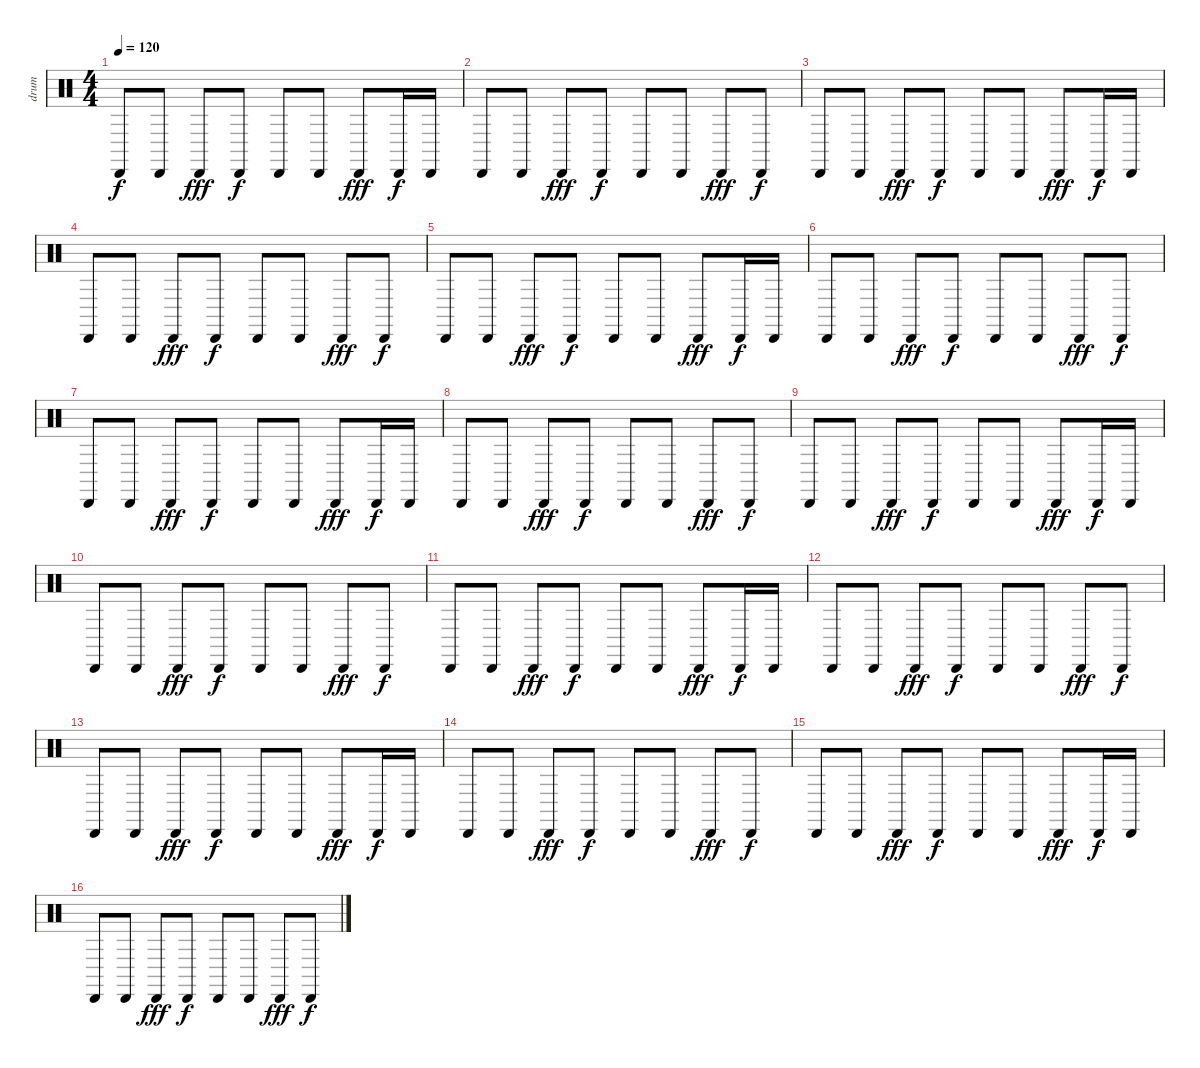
\track ("drum" "drum") {instrument percussion}
\staff {score}
\articulation defaults
\ts (4 4)
\tempo 120
\clef neutral
\ks c "Cabasa (hit)".8{dy f} "Cabasa (hit)".8 "Cabasa (hit)".8{dy fff} "Cabasa (hit)".8{dy f} "Cabasa (hit)".8 "Cabasa (hit)".8 "Cabasa (hit)".8{dy fff} "Cabasa (hit)".16{dy f} "Cabasa (hit)".16
|
"Cabasa (hit)".8 "Cabasa (hit)".8 "Cabasa (hit)".8{dy fff} "Cabasa (hit)".8{dy f} "Cabasa (hit)".8 "Cabasa (hit)".8 "Cabasa (hit)".8{dy fff} "Cabasa (hit)".8{dy f} |
"Cabasa (hit)".8 "Cabasa (hit)".8 "Cabasa (hit)".8{dy fff} "Cabasa (hit)".8{dy f} "Cabasa (hit)".8 "Cabasa (hit)".8 "Cabasa (hit)".8{dy fff} "Cabasa (hit)".16{dy f} "Cabasa (hit)".16 |
"Cabasa (hit)".8 "Cabasa (hit)".8 "Cabasa (hit)".8{dy fff} "Cabasa (hit)".8{dy f} "Cabasa (hit)".8 "Cabasa (hit)".8 "Cabasa (hit)".8{dy fff} "Cabasa (hit)".8{dy f} |
"Cabasa (hit)".8 "Cabasa (hit)".8 "Cabasa (hit)".8{dy fff} "Cabasa (hit)".8{dy f} "Cabasa (hit)".8 "Cabasa (hit)".8 "Cabasa (hit)".8{dy fff} "Cabasa (hit)".16{dy f} "Cabasa (hit)".16 |
"Cabasa (hit)".8 "Cabasa (hit)".8 "Cabasa (hit)".8{dy fff} "Cabasa (hit)".8{dy f} "Cabasa (hit)".8 "Cabasa (hit)".8 "Cabasa (hit)".8{dy fff} "Cabasa (hit)".8{dy f} |
"Cabasa (hit)".8 "Cabasa (hit)".8 "Cabasa (hit)".8{dy fff} "Cabasa (hit)".8{dy f} "Cabasa (hit)".8 "Cabasa (hit)".8 "Cabasa (hit)".8{dy fff} "Cabasa (hit)".16{dy f} "Cabasa (hit)".16 |
"Cabasa (hit)".8 "Cabasa (hit)".8 "Cabasa (hit)".8{dy fff} "Cabasa (hit)".8{dy f} "Cabasa (hit)".8 "Cabasa (hit)".8 "Cabasa (hit)".8{dy fff} "Cabasa (hit)".8{dy f} |
"Cabasa (hit)".8 "Cabasa (hit)".8 "Cabasa (hit)".8{dy fff} "Cabasa (hit)".8{dy f} "Cabasa (hit)".8 "Cabasa (hit)".8 "Cabasa (hit)".8{dy fff} "Cabasa (hit)".16{dy f} "Cabasa (hit)".16 |
"Cabasa (hit)".8 "Cabasa (hit)".8 "Cabasa (hit)".8{dy fff} "Cabasa (hit)".8{dy f} "Cabasa (hit)".8 "Cabasa (hit)".8 "Cabasa (hit)".8{dy fff} "Cabasa (hit)".8{dy f} |
"Cabasa (hit)".8 "Cabasa (hit)".8 "Cabasa (hit)".8{dy fff} "Cabasa (hit)".8{dy f} "Cabasa (hit)".8 "Cabasa (hit)".8 "Cabasa (hit)".8{dy fff} "Cabasa (hit)".16{dy f} "Cabasa (hit)".16 |
"Cabasa (hit)".8 "Cabasa (hit)".8 "Cabasa (hit)".8{dy fff} "Cabasa (hit)".8{dy f} "Cabasa (hit)".8 "Cabasa (hit)".8 "Cabasa (hit)".8{dy fff} "Cabasa (hit)".8{dy f} |
"Cabasa (hit)".8 "Cabasa (hit)".8 "Cabasa (hit)".8{dy fff} "Cabasa (hit)".8{dy f} "Cabasa (hit)".8 "Cabasa (hit)".8 "Cabasa (hit)".8{dy fff} "Cabasa (hit)".16{dy f} "Cabasa (hit)".16 |
"Cabasa (hit)".8 "Cabasa (hit)".8 "Cabasa (hit)".8{dy fff} "Cabasa (hit)".8{dy f} "Cabasa (hit)".8 "Cabasa (hit)".8 "Cabasa (hit)".8{dy fff} "Cabasa (hit)".8{dy f} |
"Cabasa (hit)".8 "Cabasa (hit)".8 "Cabasa (hit)".8{dy fff} "Cabasa (hit)".8{dy f} "Cabasa (hit)".8 "Cabasa (hit)".8 "Cabasa (hit)".8{dy fff} "Cabasa (hit)".16{dy f} "Cabasa (hit)".16 |
"Cabasa (hit)".8 "Cabasa (hit)".8 "Cabasa (hit)".8{dy fff} "Cabasa (hit)".8{dy f} "Cabasa (hit)".8 "Cabasa (hit)".8 "Cabasa (hit)".8{dy fff} "Cabasa (hit)".8{dy f}
